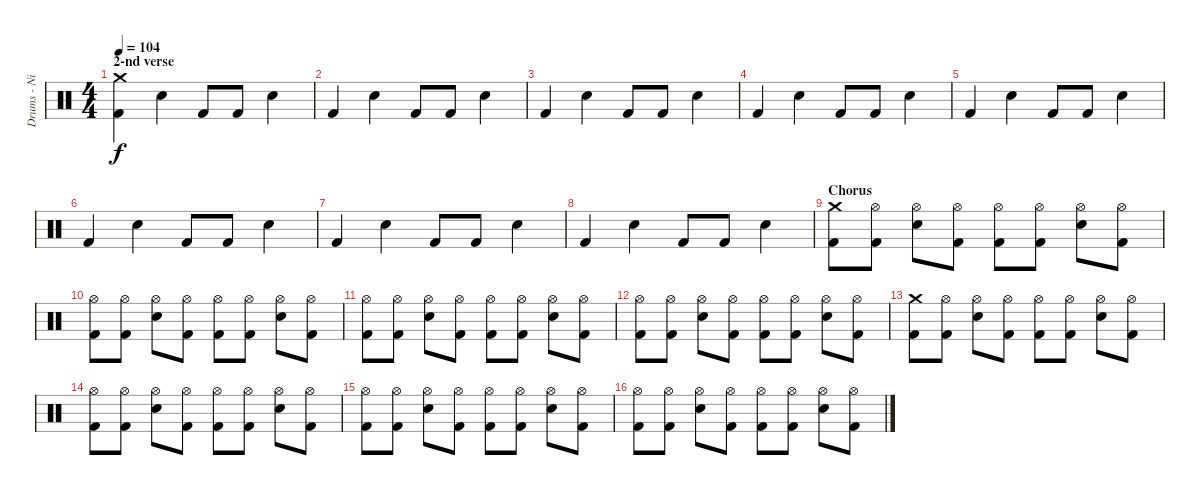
\track ("Drums - Nick Jago" "Drums - Ni") {instrument percussion}
\staff {score}
\articulation defaults
\ts (4 4)
\section ("" "2-nd verse")
\tempo 104
\clef neutral
\ks c
("Crash medium (hit)" "Kick (hit) 2").4{dy f} "Electric Snare (hit)".4 "Kick (hit) 2".8 "Kick (hit) 2".8 "Electric Snare (hit)".4 |
"Kick (hit) 2".4 "Electric Snare (hit)".4 "Kick (hit) 2".8 "Kick (hit) 2".8 "Electric Snare (hit)".4 |
"Kick (hit) 2".4 "Electric Snare (hit)".4 "Kick (hit) 2".8 "Kick (hit) 2".8 "Electric Snare (hit)".4 |
"Kick (hit) 2".4 "Electric Snare (hit)".4 "Kick (hit) 2".8 "Kick (hit) 2".8 "Electric Snare (hit)".4 |
"Kick (hit) 2".4 "Electric Snare (hit)".4 "Kick (hit) 2".8 "Kick (hit) 2".8 "Electric Snare (hit)".4 |
"Kick (hit) 2".4 "Electric Snare (hit)".4 "Kick (hit) 2".8 "Kick (hit) 2".8 "Electric Snare (hit)".4 |
"Kick (hit) 2".4 "Electric Snare (hit)".4 "Kick (hit) 2".8 "Kick (hit) 2".8 "Electric Snare (hit)".4 |
"Kick (hit) 2".4 "Electric Snare (hit)".4 "Kick (hit) 2".8 "Kick (hit) 2".8 "Electric Snare (hit)".4 |
\section ("" "Chorus")
("Crash medium (hit)" "Kick (hit) 2").8 ("Hi-Hat (open)" "Kick (hit) 2").8 ("Hi-Hat (open)" "Electric Snare (hit)").8 ("Hi-Hat (open)" "Kick (hit) 2").8 ("Hi-Hat (open)" "Kick (hit) 2").8 ("Hi-Hat (open)" "Kick (hit) 2").8 ("Hi-Hat (open)" "Electric Snare (hit)").8 ("Hi-Hat (open)" "Kick (hit) 2").8 |
("Hi-Hat (open)" "Kick (hit) 2").8 ("Hi-Hat (open)" "Kick (hit) 2").8 ("Hi-Hat (open)" "Electric Snare (hit)").8 ("Hi-Hat (open)" "Kick (hit) 2").8 ("Hi-Hat (open)" "Kick (hit) 2").8 ("Hi-Hat (open)" "Kick (hit) 2").8 ("Hi-Hat (open)" "Electric Snare (hit)").8 ("Hi-Hat (open)" "Kick (hit) 2").8 |
("Hi-Hat (open)" "Kick (hit) 2").8 ("Hi-Hat (open)" "Kick (hit) 2").8 ("Hi-Hat (open)" "Electric Snare (hit)").8 ("Hi-Hat (open)" "Kick (hit) 2").8 ("Hi-Hat (open)" "Kick (hit) 2").8 ("Hi-Hat (open)" "Kick (hit) 2").8 ("Hi-Hat (open)" "Electric Snare (hit)").8 ("Hi-Hat (open)" "Kick (hit) 2").8 |
("Hi-Hat (open)" "Kick (hit) 2").8 ("Hi-Hat (open)" "Kick (hit) 2").8 ("Hi-Hat (open)" "Electric Snare (hit)").8 ("Hi-Hat (open)" "Kick (hit) 2").8 ("Hi-Hat (open)" "Kick (hit) 2").8 ("Hi-Hat (open)" "Kick (hit) 2").8 ("Hi-Hat (open)" "Electric Snare (hit)").8 ("Hi-Hat (open)" "Kick (hit) 2").8 |
("Crash medium (hit)" "Kick (hit) 2").8 ("Hi-Hat (open)" "Kick (hit) 2").8 ("Hi-Hat (open)" "Electric Snare (hit)").8 ("Hi-Hat (open)" "Kick (hit) 2").8 ("Hi-Hat (open)" "Kick (hit) 2").8 ("Hi-Hat (open)" "Kick (hit) 2").8 ("Hi-Hat (open)" "Electric Snare (hit)").8 ("Hi-Hat (open)" "Kick (hit) 2").8 |
("Hi-Hat (open)" "Kick (hit) 2").8 ("Hi-Hat (open)" "Kick (hit) 2").8 ("Hi-Hat (open)" "Electric Snare (hit)").8 ("Hi-Hat (open)" "Kick (hit) 2").8 ("Hi-Hat (open)" "Kick (hit) 2").8 ("Hi-Hat (open)" "Kick (hit) 2").8 ("Hi-Hat (open)" "Electric Snare (hit)").8 ("Hi-Hat (open)" "Kick (hit) 2").8 |
("Hi-Hat (open)" "Kick (hit) 2").8 ("Hi-Hat (open)" "Kick (hit) 2").8 ("Hi-Hat (open)" "Electric Snare (hit)").8 ("Hi-Hat (open)" "Kick (hit) 2").8 ("Hi-Hat (open)" "Kick (hit) 2").8 ("Hi-Hat (open)" "Kick (hit) 2").8 ("Hi-Hat (open)" "Electric Snare (hit)").8 ("Hi-Hat (open)" "Kick (hit) 2").8 |
("Hi-Hat (open)" "Kick (hit) 2").8 ("Hi-Hat (open)" "Kick (hit) 2").8 ("Hi-Hat (open)" "Electric Snare (hit)").8 ("Hi-Hat (open)" "Kick (hit) 2").8 ("Hi-Hat (open)" "Kick (hit) 2").8 ("Hi-Hat (open)" "Kick (hit) 2").8 ("Hi-Hat (open)" "Electric Snare (hit)").8 ("Hi-Hat (open)" "Kick (hit) 2").8
